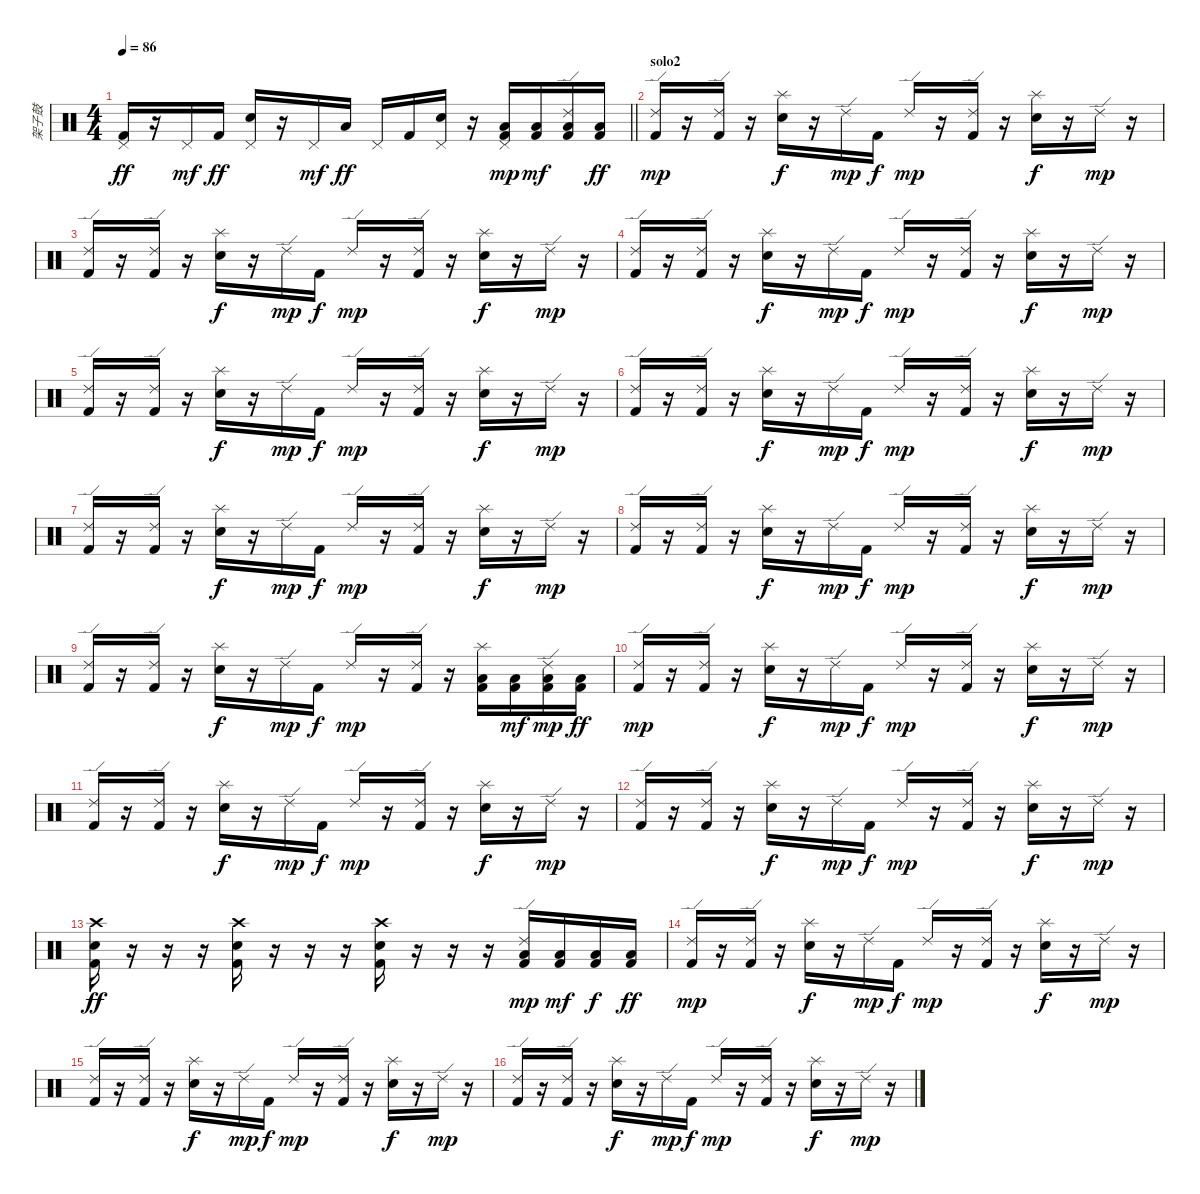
\track ("架子鼓" "架子鼓") {instrument percussion}
\staff {score}
\articulation defaults
\ts (4 4)
\tempo 86
\clef neutral
\barLineRight lightlight
\ks c
("Pedal Hi-Hat (hit)" "Kick (hit) 2").16{dy ff} r.16 "Pedal Hi-Hat (hit)".16{dy mf} "Kick (hit) 2".16{dy ff} ("Pedal Hi-Hat (hit)" "Snare (hit) 2").16 r.16 "Pedal Hi-Hat (hit)".16{dy mf} "Low Tom (hit)".16{dy ff} "Pedal Hi-Hat (hit)".16 "Kick (hit) 2".16 ("Pedal Hi-Hat (hit)" "Snare (hit) 2").16 r.16 ("Pedal Hi-Hat (hit)" "Low Floor Tom (hit)" "Kick (hit) 2").16{dy mp} ("Low Floor Tom (hit)" "Kick (hit) 2").16{dy mf} ("Ride (edge) 2" "Low Floor Tom (hit)" "Kick (hit) 2").16 ("Low Floor Tom (hit)" "Kick (hit) 2").16{dy ff} |
\section ("" "solo2")
("Ride (edge) 2" "Kick (hit) 2").16{dy mp} r.16 ("Ride (edge) 2" "Kick (hit) 2").16 r.16 ("Splash (hit)" "Snare (hit) 2").16{dy f} r.16 "Ride (edge) 2".16{dy mp} "Kick (hit) 2".16{dy f} "Ride (edge) 2".16{dy mp} r.16 ("Ride (edge) 2" "Kick (hit) 2").16 r.16 ("Splash (hit)" "Snare (hit) 2").16{dy f} r.16 "Ride (edge) 2".16{dy mp} r.16 |
("Ride (edge) 2" "Kick (hit) 2").16 r.16 ("Ride (edge) 2" "Kick (hit) 2").16 r.16 ("Splash (hit)" "Snare (hit) 2").16{dy f} r.16 "Ride (edge) 2".16{dy mp} "Kick (hit) 2".16{dy f} "Ride (edge) 2".16{dy mp} r.16 ("Ride (edge) 2" "Kick (hit) 2").16 r.16 ("Splash (hit)" "Snare (hit) 2").16{dy f} r.16 "Ride (edge) 2".16{dy mp} r.16 |
("Ride (edge) 2" "Kick (hit) 2").16 r.16 ("Ride (edge) 2" "Kick (hit) 2").16 r.16 ("Splash (hit)" "Snare (hit) 2").16{dy f} r.16 "Ride (edge) 2".16{dy mp} "Kick (hit) 2".16{dy f} "Ride (edge) 2".16{dy mp} r.16 ("Ride (edge) 2" "Kick (hit) 2").16 r.16 ("Splash (hit)" "Snare (hit) 2").16{dy f} r.16 "Ride (edge) 2".16{dy mp} r.16 |
("Ride (edge) 2" "Kick (hit) 2").16 r.16 ("Ride (edge) 2" "Kick (hit) 2").16 r.16 ("Splash (hit)" "Snare (hit) 2").16{dy f} r.16 "Ride (edge) 2".16{dy mp} "Kick (hit) 2".16{dy f} "Ride (edge) 2".16{dy mp} r.16 ("Ride (edge) 2" "Kick (hit) 2").16 r.16 ("Splash (hit)" "Snare (hit) 2").16{dy f} r.16 "Ride (edge) 2".16{dy mp} r.16 |
("Ride (edge) 2" "Kick (hit) 2").16 r.16 ("Ride (edge) 2" "Kick (hit) 2").16 r.16 ("Splash (hit)" "Snare (hit) 2").16{dy f} r.16 "Ride (edge) 2".16{dy mp} "Kick (hit) 2".16{dy f} "Ride (edge) 2".16{dy mp} r.16 ("Ride (edge) 2" "Kick (hit) 2").16 r.16 ("Splash (hit)" "Snare (hit) 2").16{dy f} r.16 "Ride (edge) 2".16{dy mp} r.16 |
("Ride (edge) 2" "Kick (hit) 2").16 r.16 ("Ride (edge) 2" "Kick (hit) 2").16 r.16 ("Splash (hit)" "Snare (hit) 2").16{dy f} r.16 "Ride (edge) 2".16{dy mp} "Kick (hit) 2".16{dy f} "Ride (edge) 2".16{dy mp} r.16 ("Ride (edge) 2" "Kick (hit) 2").16 r.16 ("Splash (hit)" "Snare (hit) 2").16{dy f} r.16 "Ride (edge) 2".16{dy mp} r.16 |
("Ride (edge) 2" "Kick (hit) 2").16 r.16 ("Ride (edge) 2" "Kick (hit) 2").16 r.16 ("Splash (hit)" "Snare (hit) 2").16{dy f} r.16 "Ride (edge) 2".16{dy mp} "Kick (hit) 2".16{dy f} "Ride (edge) 2".16{dy mp} r.16 ("Ride (edge) 2" "Kick (hit) 2").16 r.16 ("Splash (hit)" "Snare (hit) 2").16{dy f} r.16 "Ride (edge) 2".16{dy mp} r.16 |
("Ride (edge) 2" "Kick (hit) 2").16 r.16 ("Ride (edge) 2" "Kick (hit) 2").16 r.16 ("Splash (hit)" "Snare (hit) 2").16{dy f} r.16 "Ride (edge) 2".16{dy mp} "Kick (hit) 2".16{dy f} "Ride (edge) 2".16{dy mp} r.16 ("Ride (edge) 2" "Kick (hit) 2").16 r.16 ("Splash (hit)" "Low Floor Tom (hit)" "Kick (hit) 2").16 ("Low Floor Tom (hit)" "Kick (hit) 2").16{dy mf} ("Ride (edge) 2" "Low Floor Tom (hit)" "Kick (hit) 2").16{dy mp} ("Low Floor Tom (hit)" "Kick (hit) 2").16{dy ff} |
("Ride (edge) 2" "Kick (hit) 2").16{dy mp} r.16 ("Ride (edge) 2" "Kick (hit) 2").16 r.16 ("Splash (hit)" "Snare (hit) 2").16{dy f} r.16 "Ride (edge) 2".16{dy mp} "Kick (hit) 2".16{dy f} "Ride (edge) 2".16{dy mp} r.16 ("Ride (edge) 2" "Kick (hit) 2").16 r.16 ("Splash (hit)" "Snare (hit) 2").16{dy f} r.16 "Ride (edge) 2".16{dy mp} r.16 |
("Ride (edge) 2" "Kick (hit) 2").16 r.16 ("Ride (edge) 2" "Kick (hit) 2").16 r.16 ("Splash (hit)" "Snare (hit) 2").16{dy f} r.16 "Ride (edge) 2".16{dy mp} "Kick (hit) 2".16{dy f} "Ride (edge) 2".16{dy mp} r.16 ("Ride (edge) 2" "Kick (hit) 2").16 r.16 ("Splash (hit)" "Snare (hit) 2").16{dy f} r.16 "Ride (edge) 2".16{dy mp} r.16 |
("Ride (edge) 2" "Kick (hit) 2").16 r.16 ("Ride (edge) 2" "Kick (hit) 2").16 r.16 ("Splash (hit)" "Snare (hit) 2").16{dy f} r.16 "Ride (edge) 2".16{dy mp} "Kick (hit) 2".16{dy f} "Ride (edge) 2".16{dy mp} r.16 ("Ride (edge) 2" "Kick (hit) 2").16 r.16 ("Splash (hit)" "Snare (hit) 2").16{dy f} r.16 "Ride (edge) 2".16{dy mp} r.16 |
("Crash high (hit)" "Snare (hit) 2" "Kick (hit) 2").16{dy ff} r.16 r.16 r.16 ("Crash high (hit)" "Snare (hit) 2" "Kick (hit) 2").16 r.16 r.16 r.16 ("Crash high (hit)" "Snare (hit) 2" "Kick (hit) 2").16 r.16 r.16 r.16 ("Ride (edge) 2" "Low Floor Tom (hit)" "Kick (hit) 2").16{dy mp} ("Low Floor Tom (hit)" "Kick (hit) 2").16{dy mf} ("Low Floor Tom (hit)" "Kick (hit) 2").16{dy f} ("Low Floor Tom (hit)" "Kick (hit) 2").16{dy ff} |
("Ride (edge) 2" "Kick (hit) 2").16{dy mp} r.16 ("Ride (edge) 2" "Kick (hit) 2").16 r.16 ("Splash (hit)" "Snare (hit) 2").16{dy f} r.16 "Ride (edge) 2".16{dy mp} "Kick (hit) 2".16{dy f} "Ride (edge) 2".16{dy mp} r.16 ("Ride (edge) 2" "Kick (hit) 2").16 r.16 ("Splash (hit)" "Snare (hit) 2").16{dy f} r.16 "Ride (edge) 2".16{dy mp} r.16 |
("Ride (edge) 2" "Kick (hit) 2").16 r.16 ("Ride (edge) 2" "Kick (hit) 2").16 r.16 ("Splash (hit)" "Snare (hit) 2").16{dy f} r.16 "Ride (edge) 2".16{dy mp} "Kick (hit) 2".16{dy f} "Ride (edge) 2".16{dy mp} r.16 ("Ride (edge) 2" "Kick (hit) 2").16 r.16 ("Splash (hit)" "Snare (hit) 2").16{dy f} r.16 "Ride (edge) 2".16{dy mp} r.16 |
("Ride (edge) 2" "Kick (hit) 2").16 r.16 ("Ride (edge) 2" "Kick (hit) 2").16 r.16 ("Splash (hit)" "Snare (hit) 2").16{dy f} r.16 "Ride (edge) 2".16{dy mp} "Kick (hit) 2".16{dy f} "Ride (edge) 2".16{dy mp} r.16 ("Ride (edge) 2" "Kick (hit) 2").16 r.16 ("Splash (hit)" "Snare (hit) 2").16{dy f} r.16 "Ride (edge) 2".16{dy mp} r.16
